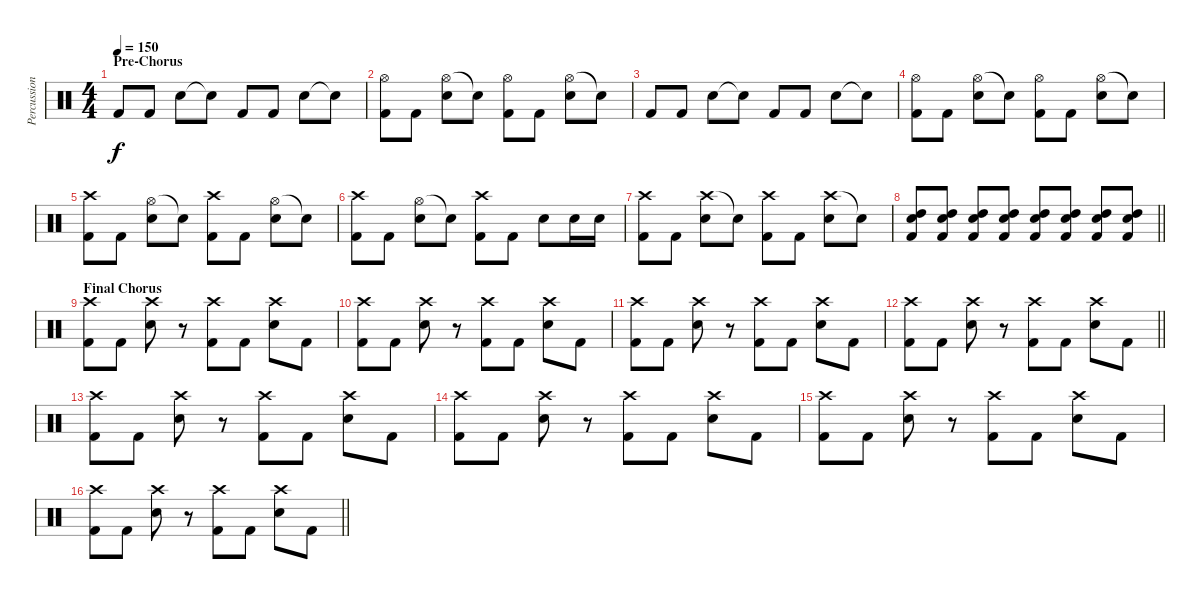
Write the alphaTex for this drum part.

\track ("Percussion" "Percussion") {instrument percussion}
\staff {score}
\articulation defaults
\ts (4 4)
\section ("" "Pre-Chorus")
\tempo 150
\clef neutral
\ks c "Kick (hit) 2".8{dy f} "Kick (hit) 2".8 "Electric Snare (hit)".8 "Snare (hit)"{t}.8 "Kick (hit) 2".8 "Kick (hit) 2".8 "Electric Snare (hit)".8 "Snare (hit)"{t}.8
|
("Hi-Hat (open)" "Kick (hit) 2").8 "Kick (hit) 2".8 ("Hi-Hat (open)" "Electric Snare (hit)").8 "Snare (hit)"{t}.8 ("Hi-Hat (open)" "Kick (hit) 2").8 "Kick (hit) 2".8 ("Hi-Hat (open)" "Electric Snare (hit)").8 "Snare (hit)"{t}.8 |
"Kick (hit) 2".8 "Kick (hit) 2".8 "Electric Snare (hit)".8 "Snare (hit)"{t}.8 "Kick (hit) 2".8 "Kick (hit) 2".8 "Electric Snare (hit)".8 "Snare (hit)"{t}.8 |
("Hi-Hat (open)" "Kick (hit) 2").8 "Kick (hit) 2".8 ("Hi-Hat (open)" "Electric Snare (hit)").8 "Snare (hit)"{t}.8 ("Hi-Hat (open)" "Kick (hit) 2").8 "Kick (hit) 2".8 ("Hi-Hat (open)" "Electric Snare (hit)").8 "Snare (hit)"{t}.8 |
("Crash high (hit)" "Kick (hit) 2").8 "Kick (hit) 2".8 ("Hi-Hat (open)" "Electric Snare (hit)").8 "Snare (hit)"{t}.8 ("Crash high (hit)" "Kick (hit) 2").8 "Kick (hit) 2".8 ("Hi-Hat (open)" "Electric Snare (hit)").8 "Snare (hit)"{t}.8 |
("Crash high (hit)" "Kick (hit) 2").8 "Kick (hit) 2".8 ("Hi-Hat (open)" "Electric Snare (hit)").8 "Snare (hit)"{t}.8 ("Crash high (hit)" "Kick (hit) 2").8 "Kick (hit) 2".8 "Electric Snare (hit)".8 "Electric Snare (hit)".16 "Electric Snare (hit)".16 |
("Crash high (hit)" "Kick (hit) 2").8 "Kick (hit) 2".8 ("Crash high (hit)" "Electric Snare (hit)").8 "Snare (hit)"{t}.8 ("Crash high (hit)" "Kick (hit) 2").8 "Kick (hit) 2".8 ("Crash high (hit)" "Electric Snare (hit)").8 "Snare (hit)"{t}.8 |
\barLineRight lightlight
("Electric Snare (hit)" "High Tom (hit)" "Kick (hit) 2").8 ("Electric Snare (hit)" "High Tom (hit)" "Kick (hit) 2").8 ("Electric Snare (hit)" "High Tom (hit)" "Kick (hit) 2").8 ("Electric Snare (hit)" "High Tom (hit)" "Kick (hit) 2").8 ("Electric Snare (hit)" "High Tom (hit)" "Kick (hit) 2").8 ("Electric Snare (hit)" "High Tom (hit)" "Kick (hit) 2").8 ("Electric Snare (hit)" "High Tom (hit)" "Kick (hit) 2").8 ("Electric Snare (hit)" "High Tom (hit)" "Kick (hit) 2").8 |
\section ("" "Final Chorus")
("Crash high (hit)" "Kick (hit) 2").8 "Kick (hit) 2".8 ("Crash high (hit)" "Electric Snare (hit)").8 r.8 ("Crash high (hit)" "Kick (hit) 2").8 "Kick (hit) 2".8 ("Crash high (hit)" "Electric Snare (hit)").8 "Kick (hit) 2".8 |
("Crash high (hit)" "Kick (hit) 2").8 "Kick (hit) 2".8 ("Crash high (hit)" "Electric Snare (hit)").8 r.8 ("Crash high (hit)" "Kick (hit) 2").8 "Kick (hit) 2".8 ("Crash high (hit)" "Electric Snare (hit)").8 "Kick (hit) 2".8 |
("Crash high (hit)" "Kick (hit) 2").8 "Kick (hit) 2".8 ("Crash high (hit)" "Electric Snare (hit)").8 r.8 ("Crash high (hit)" "Kick (hit) 2").8 "Kick (hit) 2".8 ("Crash high (hit)" "Electric Snare (hit)").8 "Kick (hit) 2".8 |
\barLineRight lightlight
("Crash high (hit)" "Kick (hit) 2").8 "Kick (hit) 2".8 ("Crash high (hit)" "Electric Snare (hit)").8 r.8 ("Crash high (hit)" "Kick (hit) 2").8 "Kick (hit) 2".8 ("Crash high (hit)" "Electric Snare (hit)").8 "Kick (hit) 2".8 |
("Crash high (hit)" "Kick (hit) 2").8 "Kick (hit) 2".8 ("Crash high (hit)" "Electric Snare (hit)").8 r.8 ("Crash high (hit)" "Kick (hit) 2").8 "Kick (hit) 2".8 ("Crash high (hit)" "Electric Snare (hit)").8 "Kick (hit) 2".8 |
("Crash high (hit)" "Kick (hit) 2").8 "Kick (hit) 2".8 ("Crash high (hit)" "Electric Snare (hit)").8 r.8 ("Crash high (hit)" "Kick (hit) 2").8 "Kick (hit) 2".8 ("Crash high (hit)" "Electric Snare (hit)").8 "Kick (hit) 2".8 |
("Crash high (hit)" "Kick (hit) 2").8 "Kick (hit) 2".8 ("Crash high (hit)" "Electric Snare (hit)").8 r.8 ("Crash high (hit)" "Kick (hit) 2").8 "Kick (hit) 2".8 ("Crash high (hit)" "Electric Snare (hit)").8 "Kick (hit) 2".8 |
\barLineRight lightlight
("Crash high (hit)" "Kick (hit) 2").8 "Kick (hit) 2".8 ("Crash high (hit)" "Electric Snare (hit)").8 r.8 ("Crash high (hit)" "Kick (hit) 2").8 "Kick (hit) 2".8 ("Crash high (hit)" "Electric Snare (hit)").8 "Kick (hit) 2".8
